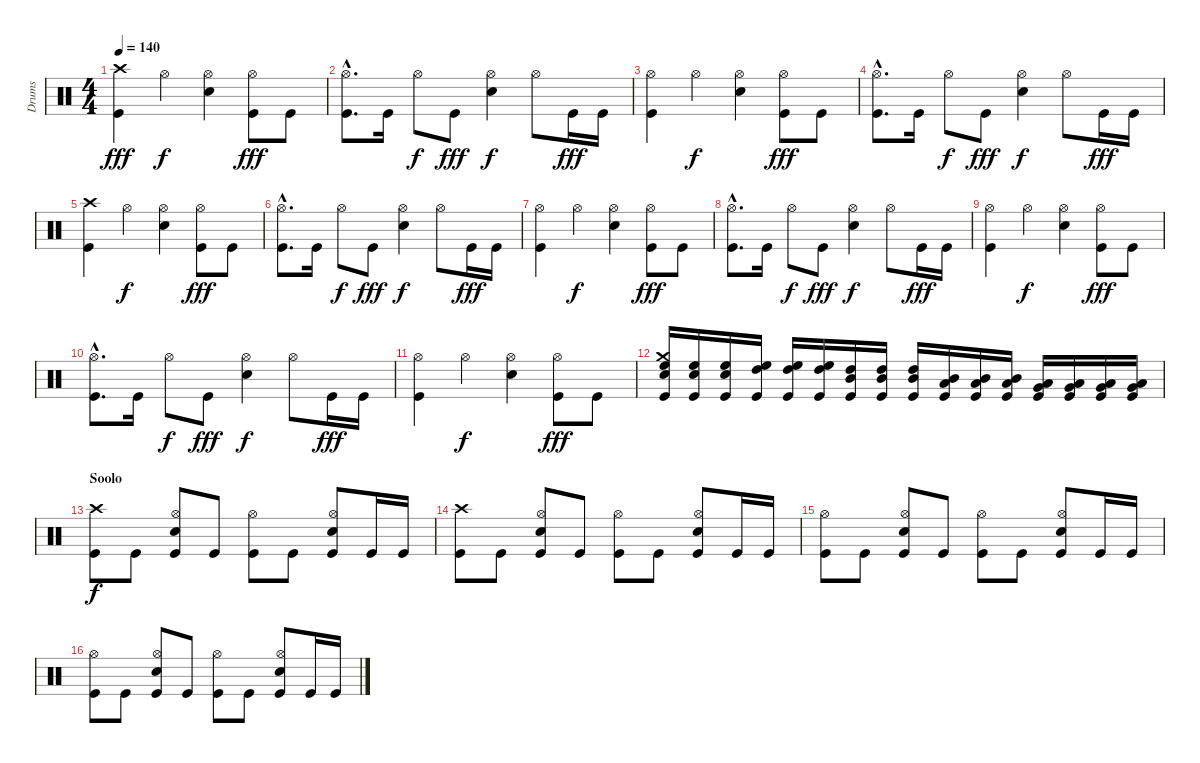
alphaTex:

\track ("Drums" "Drums") {instrument percussion}
\staff {score}
\articulation defaults
\ts (4 4)
\tempo 140
\clef neutral
\ks c
("Crash high (hit)" "Kick (hit)").4{dy fff} "Hi-Hat (open)".4{dy f} ("Hi-Hat (open)" "Snare (hit) 2").4 ("Hi-Hat (open)" "Kick (hit)").8{dy fff} "Kick (hit)".8 |
("Hi-Hat (open)"{hac} "Kick (hit)"{hac}).8{d} "Kick (hit)".16 "Hi-Hat (open)".8{dy f} "Kick (hit)".8{dy fff} ("Hi-Hat (open)" "Snare (hit) 2").4{dy f} "Hi-Hat (open)".8 "Kick (hit)".16{dy fff} "Kick (hit)".16 |
("Hi-Hat (open)" "Kick (hit)").4 "Hi-Hat (open)".4{dy f} ("Hi-Hat (open)" "Snare (hit) 2").4 ("Hi-Hat (open)" "Kick (hit)").8{dy fff} "Kick (hit)".8 |
("Hi-Hat (open)"{hac} "Kick (hit)"{hac}).8{d} "Kick (hit)".16 "Hi-Hat (open)".8{dy f} "Kick (hit)".8{dy fff} ("Hi-Hat (open)" "Snare (hit) 2").4{dy f} "Hi-Hat (open)".8 "Kick (hit)".16{dy fff} "Kick (hit)".16 |
("Crash high (hit)" "Kick (hit)").4 "Hi-Hat (open)".4{dy f} ("Hi-Hat (open)" "Snare (hit) 2").4 ("Hi-Hat (open)" "Kick (hit)").8{dy fff} "Kick (hit)".8 |
("Hi-Hat (open)"{hac} "Kick (hit)"{hac}).8{d} "Kick (hit)".16 "Hi-Hat (open)".8{dy f} "Kick (hit)".8{dy fff} ("Hi-Hat (open)" "Snare (hit) 2").4{dy f} "Hi-Hat (open)".8 "Kick (hit)".16{dy fff} "Kick (hit)".16 |
("Hi-Hat (open)" "Kick (hit)").4 "Hi-Hat (open)".4{dy f} ("Hi-Hat (open)" "Snare (hit) 2").4 ("Hi-Hat (open)" "Kick (hit)").8{dy fff} "Kick (hit)".8 |
("Hi-Hat (open)"{hac} "Kick (hit)"{hac}).8{d} "Kick (hit)".16 "Hi-Hat (open)".8{dy f} "Kick (hit)".8{dy fff} ("Hi-Hat (open)" "Snare (hit) 2").4{dy f} "Hi-Hat (open)".8 "Kick (hit)".16{dy fff} "Kick (hit)".16 |
("Hi-Hat (open)" "Kick (hit)").4 "Hi-Hat (open)".4{dy f} ("Hi-Hat (open)" "Snare (hit) 2").4 ("Hi-Hat (open)" "Kick (hit)").8{dy fff} "Kick (hit)".8 |
("Hi-Hat (open)"{hac} "Kick (hit)"{hac}).8{d} "Kick (hit)".16 "Hi-Hat (open)".8{dy f} "Kick (hit)".8{dy fff} ("Hi-Hat (open)" "Snare (hit) 2").4{dy f} "Hi-Hat (open)".8 "Kick (hit)".16{dy fff} "Kick (hit)".16 |
("Hi-Hat (open)" "Kick (hit)").4 "Hi-Hat (open)".4{dy f} ("Hi-Hat (open)" "Snare (hit) 2").4 ("Hi-Hat (open)" "Kick (hit)").8{dy fff} "Kick (hit)".8 |
("Crash medium (hit)" "Snare (hit) 2" "High Floor Tom (hit)" "Kick (hit)").16 ("Snare (hit) 2" "High Floor Tom (hit)" "Kick (hit)").16 ("Snare (hit) 2" "High Floor Tom (hit)" "Kick (hit)").16 ("High Floor Tom (hit)" "High Tom (hit)" "Kick (hit)").16 ("High Floor Tom (hit)" "High Tom (hit)" "Kick (hit)").16 ("High Floor Tom (hit)" "High Tom (hit)" "Kick (hit)").16 ("High Tom (hit)" "Mid Tom (hit)" "Kick (hit)").16 ("High Tom (hit)" "Mid Tom (hit)" "Kick (hit)").16 ("High Tom (hit)" "Mid Tom (hit)" "Kick (hit)").16 ("Mid Tom (hit)" "Low Tom (hit)" "Kick (hit)").16 ("Mid Tom (hit)" "Low Tom (hit)" "Kick (hit)").16 ("Mid Tom (hit)" "Low Tom (hit)" "Kick (hit)").16 ("Low Tom (hit)" "Very Low Tom (hit)" "Kick (hit)").16 ("Low Tom (hit)" "Very Low Tom (hit)" "Kick (hit)").16 ("Very Low Tom (hit)" "Low Floor Tom (hit)" "Kick (hit)").16 ("Very Low Tom (hit)" "Low Floor Tom (hit)" "Kick (hit)").16 |
\section ("" "Soolo")
("Crash high (hit)" "Kick (hit)").8{dy f} "Kick (hit)".8 ("Hi-Hat (open)" "Snare (hit) 2" "Kick (hit)").8 "Kick (hit)".8 ("Hi-Hat (open)" "Kick (hit)").8 "Kick (hit)".8 ("Hi-Hat (open)" "Snare (hit) 2" "Kick (hit)").8 "Kick (hit)".16 "Kick (hit)".16 |
("Crash high (hit)" "Kick (hit)").8 "Kick (hit)".8 ("Hi-Hat (open)" "Snare (hit) 2" "Kick (hit)").8 "Kick (hit)".8 ("Hi-Hat (open)" "Kick (hit)").8 "Kick (hit)".8 ("Hi-Hat (open)" "Snare (hit) 2" "Kick (hit)").8 "Kick (hit)".16 "Kick (hit)".16 |
("Hi-Hat (open)" "Kick (hit)").8 "Kick (hit)".8 ("Hi-Hat (open)" "Snare (hit) 2" "Kick (hit)").8 "Kick (hit)".8 ("Hi-Hat (open)" "Kick (hit)").8 "Kick (hit)".8 ("Hi-Hat (open)" "Snare (hit) 2" "Kick (hit)").8 "Kick (hit)".16 "Kick (hit)".16 |
("Hi-Hat (open)" "Kick (hit)").8 "Kick (hit)".8 ("Hi-Hat (open)" "Snare (hit) 2" "Kick (hit)").8 "Kick (hit)".8 ("Hi-Hat (open)" "Kick (hit)").8 "Kick (hit)".8 ("Hi-Hat (open)" "Snare (hit) 2" "Kick (hit)").8 "Kick (hit)".16 "Kick (hit)".16
